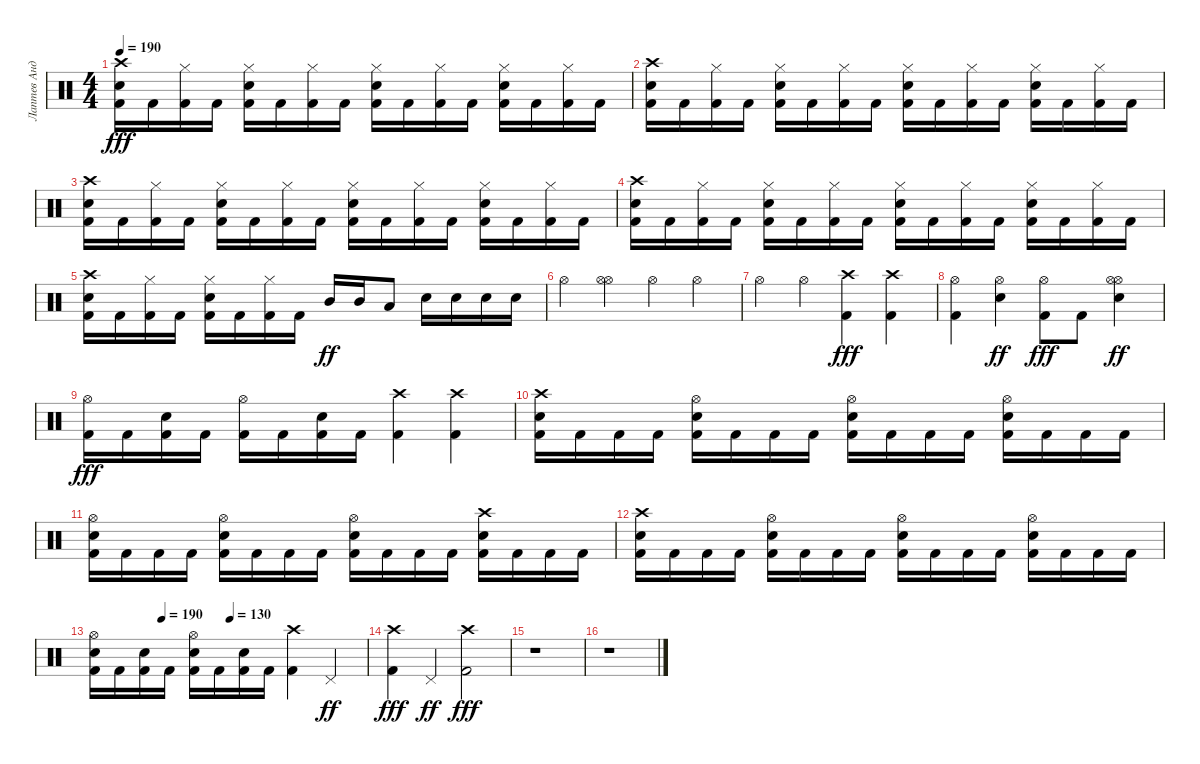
\track ("Лаптев Андрей" "Лаптев Анд") {instrument percussion}
\staff {score}
\articulation defaults
\ts (4 4)
\tempo 190
\clef neutral
\ks c
("Crash high (hit)" "Electric Snare (hit)" "Kick (hit) 2").16{dy fff} "Kick (hit) 2".16 ("Hi-Hat (closed)" "Kick (hit) 2").16 "Kick (hit) 2".16 ("Electric Snare (hit)" "Hi-Hat (closed)" "Kick (hit) 2").16 "Kick (hit) 2".16 ("Hi-Hat (closed)" "Kick (hit) 2").16 "Kick (hit) 2".16 ("Hi-Hat (closed)" "Electric Snare (hit)" "Kick (hit) 2").16 "Kick (hit) 2".16 ("Hi-Hat (closed)" "Kick (hit) 2").16 "Kick (hit) 2".16 ("Electric Snare (hit)" "Hi-Hat (closed)" "Kick (hit) 2").16 "Kick (hit) 2".16 ("Hi-Hat (closed)" "Kick (hit) 2").16 "Kick (hit) 2".16 |
("Electric Snare (hit)" "Crash high (hit)" "Kick (hit) 2").16 "Kick (hit) 2".16 ("Hi-Hat (closed)" "Kick (hit) 2").16 "Kick (hit) 2".16 ("Electric Snare (hit)" "Hi-Hat (closed)" "Kick (hit) 2").16 "Kick (hit) 2".16 ("Hi-Hat (closed)" "Kick (hit) 2").16 "Kick (hit) 2".16 ("Electric Snare (hit)" "Hi-Hat (closed)" "Kick (hit) 2").16 "Kick (hit) 2".16 ("Hi-Hat (closed)" "Kick (hit) 2").16 "Kick (hit) 2".16 ("Electric Snare (hit)" "Hi-Hat (closed)" "Kick (hit) 2").16 "Kick (hit) 2".16 ("Hi-Hat (closed)" "Kick (hit) 2").16 "Kick (hit) 2".16 |
("Electric Snare (hit)" "Crash high (hit)" "Kick (hit) 2").16 "Kick (hit) 2".16 ("Hi-Hat (closed)" "Kick (hit) 2").16 "Kick (hit) 2".16 ("Electric Snare (hit)" "Hi-Hat (closed)" "Kick (hit) 2").16 "Kick (hit) 2".16 ("Hi-Hat (closed)" "Kick (hit) 2").16 "Kick (hit) 2".16 ("Electric Snare (hit)" "Hi-Hat (closed)" "Kick (hit) 2").16 "Kick (hit) 2".16 ("Hi-Hat (closed)" "Kick (hit) 2").16 "Kick (hit) 2".16 ("Electric Snare (hit)" "Hi-Hat (closed)" "Kick (hit) 2").16 "Kick (hit) 2".16 ("Hi-Hat (closed)" "Kick (hit) 2").16 "Kick (hit) 2".16 |
("Crash high (hit)" "Electric Snare (hit)" "Kick (hit) 2").16 "Kick (hit) 2".16 ("Hi-Hat (closed)" "Kick (hit) 2").16 "Kick (hit) 2".16 ("Hi-Hat (closed)" "Electric Snare (hit)" "Kick (hit) 2").16 "Kick (hit) 2".16 ("Hi-Hat (closed)" "Kick (hit) 2").16 "Kick (hit) 2".16 ("Hi-Hat (closed)" "Electric Snare (hit)" "Kick (hit) 2").16 "Kick (hit) 2".16 ("Hi-Hat (closed)" "Kick (hit) 2").16 "Kick (hit) 2".16 ("Hi-Hat (closed)" "Electric Snare (hit)" "Kick (hit) 2").16 "Kick (hit) 2".16 ("Hi-Hat (closed)" "Kick (hit) 2").16 "Kick (hit) 2".16 |
("Crash high (hit)" "Electric Snare (hit)" "Kick (hit) 2").16 "Kick (hit) 2".16 ("Hi-Hat (closed)" "Kick (hit) 2").16 "Kick (hit) 2".16 ("Hi-Hat (closed)" "Electric Snare (hit)" "Kick (hit) 2").16 "Kick (hit) 2".16 ("Hi-Hat (closed)" "Kick (hit) 2").16 "Kick (hit) 2".16 "Mid Tom (hit)".16{dy ff} "Mid Tom (hit)".16 "Low Tom (hit)".8 "Electric Snare (hit)".16 "Electric Snare (hit)".16 "Electric Snare (hit)".16 "Electric Snare (hit)".16 |
"Hi-Hat (open)".4 ("Hi-Hat (open)" "Hi-Hat (open)").4 "Hi-Hat (open)".4 "Hi-Hat (open)".4 |
"Hi-Hat (open)".4 "Hi-Hat (open)".4 ("Crash high (hit)" "Kick (hit) 2").4{dy fff} ("Crash high (hit)" "Kick (hit) 2").4 |
("Hi-Hat (open)" "Kick (hit) 2").4 ("Electric Snare (hit)" "Hi-Hat (open)").4{dy ff} ("Hi-Hat (open)" "Kick (hit) 2").8{dy fff} "Kick (hit) 2".8 ("Electric Snare (hit)" "Hi-Hat (open)" "Hi-Hat (open)").4{dy ff} |
("Hi-Hat (open)" "Kick (hit) 2").16{dy fff} "Kick (hit) 2".16 ("Electric Snare (hit)" "Kick (hit) 2").16 "Kick (hit) 2".16 ("Hi-Hat (open)" "Kick (hit) 2").16 "Kick (hit) 2".16 ("Electric Snare (hit)" "Kick (hit) 2").16 "Kick (hit) 2".16 ("Crash high (hit)" "Kick (hit) 2").4 ("Crash high (hit)" "Kick (hit) 2").4 |
("Electric Snare (hit)" "Crash high (hit)" "Kick (hit) 2").16 "Kick (hit) 2".16 "Kick (hit) 2".16 "Kick (hit) 2".16 ("Hi-Hat (open)" "Electric Snare (hit)" "Kick (hit) 2").16 "Kick (hit) 2".16 "Kick (hit) 2".16 "Kick (hit) 2".16 ("Electric Snare (hit)" "Hi-Hat (open)" "Kick (hit) 2").16 "Kick (hit) 2".16 "Kick (hit) 2".16 "Kick (hit) 2".16 ("Electric Snare (hit)" "Hi-Hat (open)" "Kick (hit) 2").16 "Kick (hit) 2".16 "Kick (hit) 2".16 "Kick (hit) 2".16 |
("Electric Snare (hit)" "Hi-Hat (open)" "Kick (hit) 2").16 "Kick (hit) 2".16 "Kick (hit) 2".16 "Kick (hit) 2".16 ("Hi-Hat (open)" "Electric Snare (hit)" "Kick (hit) 2").16 "Kick (hit) 2".16 "Kick (hit) 2".16 "Kick (hit) 2".16 ("Electric Snare (hit)" "Hi-Hat (open)" "Kick (hit) 2").16 "Kick (hit) 2".16 "Kick (hit) 2".16 "Kick (hit) 2".16 ("Crash high (hit)" "Electric Snare (hit)" "Kick (hit) 2").16 "Kick (hit) 2".16 "Kick (hit) 2".16 "Kick (hit) 2".16 |
("Electric Snare (hit)" "Crash high (hit)" "Kick (hit) 2").16 "Kick (hit) 2".16 "Kick (hit) 2".16 "Kick (hit) 2".16 ("Electric Snare (hit)" "Hi-Hat (open)" "Kick (hit) 2").16 "Kick (hit) 2".16 "Kick (hit) 2".16 "Kick (hit) 2".16 ("Electric Snare (hit)" "Hi-Hat (open)" "Kick (hit) 2").16 "Kick (hit) 2".16 "Kick (hit) 2".16 "Kick (hit) 2".16 ("Electric Snare (hit)" "Hi-Hat (open)" "Kick (hit) 2").16 "Kick (hit) 2".16 "Kick (hit) 2".16 "Kick (hit) 2".16 |
\tempo (190 0.25)
\tempo (130 0.5)
("Electric Snare (hit)" "Hi-Hat (open)" "Kick (hit) 2").16 "Kick (hit) 2".16 ("Electric Snare (hit)" "Kick (hit) 2").16 "Kick (hit) 2".16 ("Electric Snare (hit)" "Hi-Hat (open)" "Kick (hit) 2").16 "Kick (hit) 2".16 ("Electric Snare (hit)" "Kick (hit) 2").16 "Kick (hit) 2".16 ("Crash high (hit)" "Kick (hit) 2").4 "Pedal Hi-Hat (hit)".4{dy ff} |
("Crash high (hit)" "Kick (hit) 2").4{dy fff} "Pedal Hi-Hat (hit)".4{dy ff} ("Crash high (hit)" "Kick (hit) 2").2{dy fff} |
r.1 |
r.1
